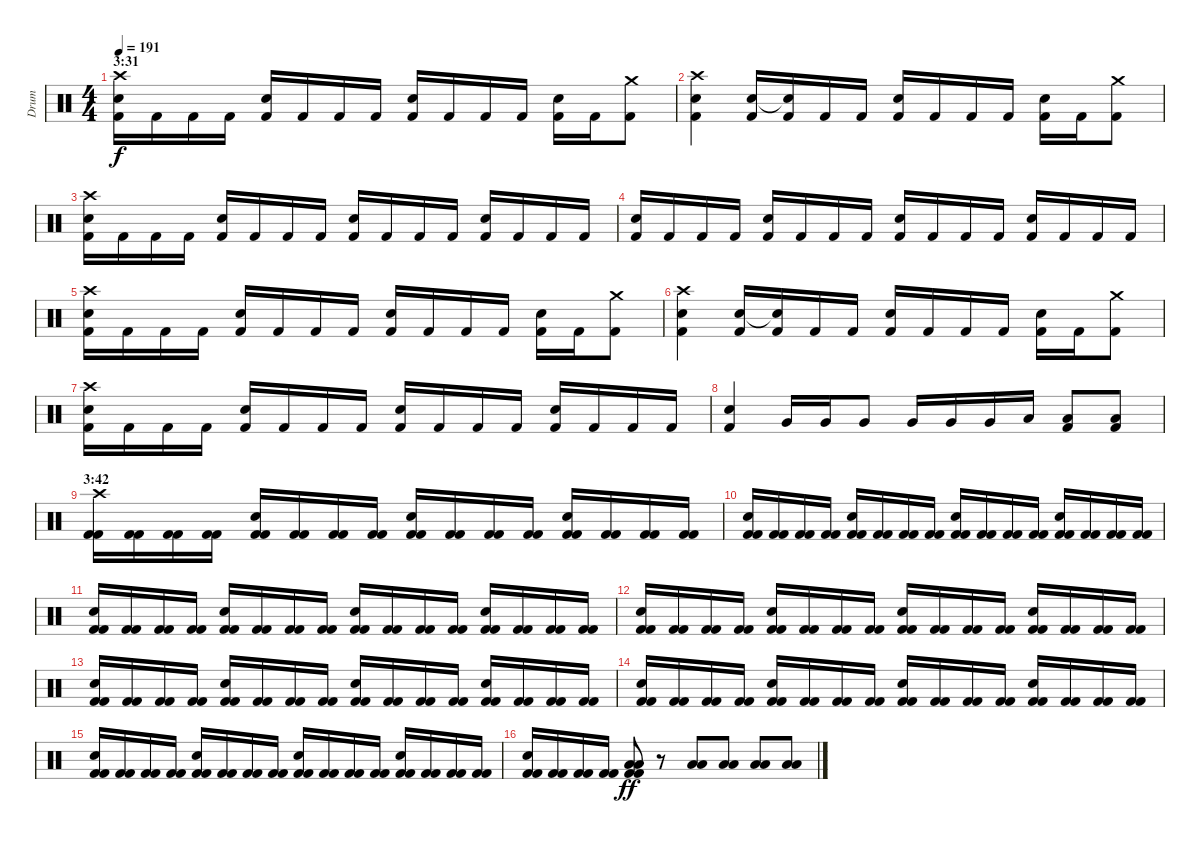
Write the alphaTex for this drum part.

\track ("Drum" "Drum") {instrument percussion}
\staff {score}
\articulation defaults
\ts (4 4)
\section ("" "3:31")
\tempo 191
\clef neutral
\ks c
("Kick (hit) 2" "Snare (hit) 2" "Crash high (hit)").16{dy f} "Kick (hit) 2".16 "Kick (hit) 2".16 "Kick (hit) 2".16 ("Kick (hit) 2" "Snare (hit) 2").16 "Kick (hit) 2".16 "Kick (hit) 2".16 "Kick (hit) 2".16 ("Kick (hit) 2" "Snare (hit) 2").16 "Kick (hit) 2".16 "Kick (hit) 2".16 "Kick (hit) 2".16 ("Kick (hit) 2" "Snare (hit) 2").16 "Kick (hit) 2".16 ("Kick (hit) 2" "Crash medium (hit)").8 |
("Kick (hit) 2" "Snare (hit) 2" "Crash high (hit)").4 ("Kick (hit) 2" "Snare (hit) 2").16 ("Kick (hit) 2" "Snare (hit)"{t}).16 "Kick (hit) 2".16 "Kick (hit) 2".16 ("Kick (hit) 2" "Snare (hit) 2").16 "Kick (hit) 2".16 "Kick (hit) 2".16 "Kick (hit) 2".16 ("Kick (hit) 2" "Snare (hit) 2").16 "Kick (hit) 2".16 ("Kick (hit) 2" "Crash medium (hit)").8 |
("Kick (hit) 2" "Snare (hit) 2" "Crash high (hit)").16 "Kick (hit) 2".16 "Kick (hit) 2".16 "Kick (hit) 2".16 ("Kick (hit) 2" "Snare (hit) 2").16 "Kick (hit) 2".16 "Kick (hit) 2".16 "Kick (hit) 2".16 ("Kick (hit) 2" "Snare (hit) 2").16 "Kick (hit) 2".16 "Kick (hit) 2".16 "Kick (hit) 2".16 ("Kick (hit) 2" "Snare (hit) 2").16 "Kick (hit) 2".16 "Kick (hit) 2".16 "Kick (hit) 2".16 |
("Kick (hit) 2" "Snare (hit) 2").16 "Kick (hit) 2".16 "Kick (hit) 2".16 "Kick (hit) 2".16 ("Kick (hit) 2" "Snare (hit) 2").16 "Kick (hit) 2".16 "Kick (hit) 2".16 "Kick (hit) 2".16 ("Kick (hit) 2" "Snare (hit) 2").16 "Kick (hit) 2".16 "Kick (hit) 2".16 "Kick (hit) 2".16 ("Kick (hit) 2" "Snare (hit) 2").16 "Kick (hit) 2".16 "Kick (hit) 2".16 "Kick (hit) 2".16 |
("Kick (hit) 2" "Snare (hit) 2" "Crash high (hit)").16 "Kick (hit) 2".16 "Kick (hit) 2".16 "Kick (hit) 2".16 ("Kick (hit) 2" "Snare (hit) 2").16 "Kick (hit) 2".16 "Kick (hit) 2".16 "Kick (hit) 2".16 ("Kick (hit) 2" "Snare (hit) 2").16 "Kick (hit) 2".16 "Kick (hit) 2".16 "Kick (hit) 2".16 ("Kick (hit) 2" "Snare (hit) 2").16 "Kick (hit) 2".16 ("Kick (hit) 2" "Crash medium (hit)").8 |
("Kick (hit) 2" "Snare (hit) 2" "Crash high (hit)").4 ("Kick (hit) 2" "Snare (hit) 2").16 ("Kick (hit) 2" "Snare (hit)"{t}).16 "Kick (hit) 2".16 "Kick (hit) 2".16 ("Kick (hit) 2" "Snare (hit) 2").16 "Kick (hit) 2".16 "Kick (hit) 2".16 "Kick (hit) 2".16 ("Kick (hit) 2" "Snare (hit) 2").16 "Kick (hit) 2".16 ("Kick (hit) 2" "Crash medium (hit)").8 |
("Kick (hit) 2" "Snare (hit) 2" "Crash high (hit)").16 "Kick (hit) 2".16 "Kick (hit) 2".16 "Kick (hit) 2".16 ("Kick (hit) 2" "Snare (hit) 2").16 "Kick (hit) 2".16 "Kick (hit) 2".16 "Kick (hit) 2".16 ("Kick (hit) 2" "Snare (hit) 2").16 "Kick (hit) 2".16 "Kick (hit) 2".16 "Kick (hit) 2".16 ("Kick (hit) 2" "Snare (hit) 2").16 "Kick (hit) 2".16 "Kick (hit) 2".16 "Kick (hit) 2".16 |
("Kick (hit) 2" "Snare (hit) 2").4 "Very Low Tom (hit)".16 "Very Low Tom (hit)".16 "Very Low Tom (hit)".8 "Very Low Tom (hit)".16 "Very Low Tom (hit)".16 "Very Low Tom (hit)".16 "Low Tom (hit)".16 ("Kick (hit) 2" "Low Floor Tom (hit)").8 ("Kick (hit) 2" "Low Floor Tom (hit)").8 |
\section ("" "3:42")
("Kick (hit) 2" "Kick (hit) 2" "Crash high (hit)").16 ("Kick (hit) 2" "Kick (hit) 2").16 ("Kick (hit) 2" "Kick (hit) 2").16 ("Kick (hit) 2" "Kick (hit) 2").16 ("Kick (hit) 2" "Kick (hit) 2" "Snare (hit) 2").16 ("Kick (hit) 2" "Kick (hit) 2").16 ("Kick (hit) 2" "Kick (hit) 2").16 ("Kick (hit) 2" "Kick (hit) 2").16 ("Kick (hit) 2" "Kick (hit) 2" "Snare (hit) 2").16 ("Kick (hit) 2" "Kick (hit) 2").16 ("Kick (hit) 2" "Kick (hit) 2").16 ("Kick (hit) 2" "Kick (hit) 2").16 ("Kick (hit) 2" "Kick (hit) 2" "Snare (hit) 2").16 ("Kick (hit) 2" "Kick (hit) 2").16 ("Kick (hit) 2" "Kick (hit) 2").16 ("Kick (hit) 2" "Kick (hit) 2").16 |
("Kick (hit) 2" "Kick (hit) 2" "Snare (hit) 2").16 ("Kick (hit) 2" "Kick (hit) 2").16 ("Kick (hit) 2" "Kick (hit) 2").16 ("Kick (hit) 2" "Kick (hit) 2").16 ("Kick (hit) 2" "Kick (hit) 2" "Snare (hit) 2").16 ("Kick (hit) 2" "Kick (hit) 2").16 ("Kick (hit) 2" "Kick (hit) 2").16 ("Kick (hit) 2" "Kick (hit) 2").16 ("Kick (hit) 2" "Kick (hit) 2" "Snare (hit) 2").16 ("Kick (hit) 2" "Kick (hit) 2").16 ("Kick (hit) 2" "Kick (hit) 2").16 ("Kick (hit) 2" "Kick (hit) 2").16 ("Kick (hit) 2" "Kick (hit) 2" "Snare (hit) 2").16 ("Kick (hit) 2" "Kick (hit) 2").16 ("Kick (hit) 2" "Kick (hit) 2").16 ("Kick (hit) 2" "Kick (hit) 2").16 |
("Kick (hit) 2" "Kick (hit) 2" "Snare (hit) 2").16 ("Kick (hit) 2" "Kick (hit) 2").16 ("Kick (hit) 2" "Kick (hit) 2").16 ("Kick (hit) 2" "Kick (hit) 2").16 ("Kick (hit) 2" "Kick (hit) 2" "Snare (hit) 2").16 ("Kick (hit) 2" "Kick (hit) 2").16 ("Kick (hit) 2" "Kick (hit) 2").16 ("Kick (hit) 2" "Kick (hit) 2").16 ("Kick (hit) 2" "Kick (hit) 2" "Snare (hit) 2").16 ("Kick (hit) 2" "Kick (hit) 2").16 ("Kick (hit) 2" "Kick (hit) 2").16 ("Kick (hit) 2" "Kick (hit) 2").16 ("Kick (hit) 2" "Kick (hit) 2" "Snare (hit) 2").16 ("Kick (hit) 2" "Kick (hit) 2").16 ("Kick (hit) 2" "Kick (hit) 2").16 ("Kick (hit) 2" "Kick (hit) 2").16 |
("Kick (hit) 2" "Kick (hit) 2" "Snare (hit) 2").16 ("Kick (hit) 2" "Kick (hit) 2").16 ("Kick (hit) 2" "Kick (hit) 2").16 ("Kick (hit) 2" "Kick (hit) 2").16 ("Kick (hit) 2" "Kick (hit) 2" "Snare (hit) 2").16 ("Kick (hit) 2" "Kick (hit) 2").16 ("Kick (hit) 2" "Kick (hit) 2").16 ("Kick (hit) 2" "Kick (hit) 2").16 ("Kick (hit) 2" "Kick (hit) 2" "Snare (hit) 2").16 ("Kick (hit) 2" "Kick (hit) 2").16 ("Kick (hit) 2" "Kick (hit) 2").16 ("Kick (hit) 2" "Kick (hit) 2").16 ("Kick (hit) 2" "Kick (hit) 2" "Snare (hit) 2").16 ("Kick (hit) 2" "Kick (hit) 2").16 ("Kick (hit) 2" "Kick (hit) 2").16 ("Kick (hit) 2" "Kick (hit) 2").16 |
("Kick (hit) 2" "Kick (hit) 2" "Snare (hit) 2").16 ("Kick (hit) 2" "Kick (hit) 2").16 ("Kick (hit) 2" "Kick (hit) 2").16 ("Kick (hit) 2" "Kick (hit) 2").16 ("Kick (hit) 2" "Kick (hit) 2" "Snare (hit) 2").16 ("Kick (hit) 2" "Kick (hit) 2").16 ("Kick (hit) 2" "Kick (hit) 2").16 ("Kick (hit) 2" "Kick (hit) 2").16 ("Kick (hit) 2" "Kick (hit) 2" "Snare (hit) 2").16 ("Kick (hit) 2" "Kick (hit) 2").16 ("Kick (hit) 2" "Kick (hit) 2").16 ("Kick (hit) 2" "Kick (hit) 2").16 ("Kick (hit) 2" "Kick (hit) 2" "Snare (hit) 2").16 ("Kick (hit) 2" "Kick (hit) 2").16 ("Kick (hit) 2" "Kick (hit) 2").16 ("Kick (hit) 2" "Kick (hit) 2").16 |
("Kick (hit) 2" "Kick (hit) 2" "Snare (hit) 2").16 ("Kick (hit) 2" "Kick (hit) 2").16 ("Kick (hit) 2" "Kick (hit) 2").16 ("Kick (hit) 2" "Kick (hit) 2").16 ("Kick (hit) 2" "Kick (hit) 2" "Snare (hit) 2").16 ("Kick (hit) 2" "Kick (hit) 2").16 ("Kick (hit) 2" "Kick (hit) 2").16 ("Kick (hit) 2" "Kick (hit) 2").16 ("Kick (hit) 2" "Kick (hit) 2" "Snare (hit) 2").16 ("Kick (hit) 2" "Kick (hit) 2").16 ("Kick (hit) 2" "Kick (hit) 2").16 ("Kick (hit) 2" "Kick (hit) 2").16 ("Kick (hit) 2" "Kick (hit) 2" "Snare (hit) 2").16 ("Kick (hit) 2" "Kick (hit) 2").16 ("Kick (hit) 2" "Kick (hit) 2").16 ("Kick (hit) 2" "Kick (hit) 2").16 |
("Kick (hit) 2" "Kick (hit) 2" "Snare (hit) 2").16 ("Kick (hit) 2" "Kick (hit) 2").16 ("Kick (hit) 2" "Kick (hit) 2").16 ("Kick (hit) 2" "Kick (hit) 2").16 ("Kick (hit) 2" "Kick (hit) 2" "Snare (hit) 2").16 ("Kick (hit) 2" "Kick (hit) 2").16 ("Kick (hit) 2" "Kick (hit) 2").16 ("Kick (hit) 2" "Kick (hit) 2").16 ("Kick (hit) 2" "Kick (hit) 2" "Snare (hit) 2").16 ("Kick (hit) 2" "Kick (hit) 2").16 ("Kick (hit) 2" "Kick (hit) 2").16 ("Kick (hit) 2" "Kick (hit) 2").16 ("Kick (hit) 2" "Kick (hit) 2" "Snare (hit) 2").16 ("Kick (hit) 2" "Kick (hit) 2").16 ("Kick (hit) 2" "Kick (hit) 2").16 ("Kick (hit) 2" "Kick (hit) 2").16 |
("Kick (hit) 2" "Kick (hit) 2" "Snare (hit) 2").16 ("Kick (hit) 2" "Kick (hit) 2").16 ("Kick (hit) 2" "Kick (hit) 2").16 ("Kick (hit) 2" "Kick (hit) 2").16 ("Kick (hit) 2" "Kick (hit) 2" "Low Floor Tom (hit)" "Low Floor Tom (hit)").8{dy ff} r.8 ("Low Floor Tom (hit)" "Low Floor Tom (hit)").8 ("Low Floor Tom (hit)" "Low Floor Tom (hit)").8 ("Low Floor Tom (hit)" "Low Floor Tom (hit)").8 ("Low Floor Tom (hit)" "Low Floor Tom (hit)").8
